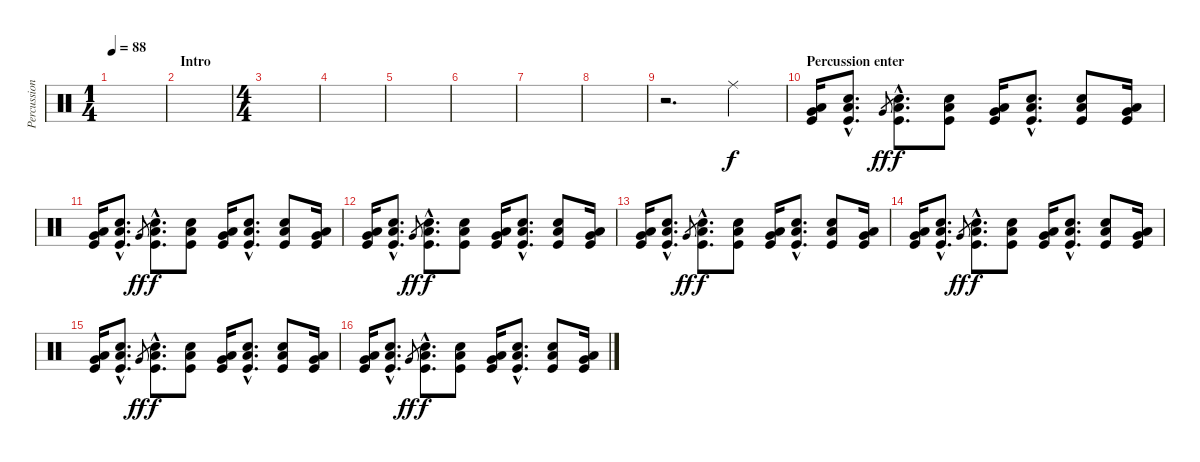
\track ("Percussion" "Percussion") {instrument percussion}
\staff {score}
\articulation defaults
\ts (1 4)
\tempo 88
\clef neutral
\ks c
|
\section ("" "Intro")
|
\ts (4 4)
|
|
|
|
|
|
r.2{d} "Ride (middle)".4 |
\section ("" "Percussion enter")
("Very Low Tom (hit)" "Low Tom (hit)" "Kick (hit)").16{dy f volume 11} ("Electric Snare (hit)"{hac} "Low Tom (hit)"{hac} "Kick (hit)"{hac}).8{d} "Very Low Tom (hit)".8{gr dy ff} ("Electric Snare (hit)"{hac} "Low Tom (hit)"{hac} "Kick (hit)"{hac}).8{d dy f} ("Electric Snare (hit)" "Low Tom (hit)" "Kick (hit)").8 ("Very Low Tom (hit)" "Low Tom (hit)" "Kick (hit)").16 ("Electric Snare (hit)"{hac} "Low Tom (hit)"{hac} "Kick (hit)"{hac}).8{d} ("Electric Snare (hit)" "Low Tom (hit)" "Kick (hit)").8 ("Very Low Tom (hit)" "Low Tom (hit)" "Kick (hit)").16 |
("Very Low Tom (hit)" "Low Tom (hit)" "Kick (hit)").16 ("Electric Snare (hit)"{hac} "Low Tom (hit)"{hac} "Kick (hit)"{hac}).8{d} "Very Low Tom (hit)".8{gr dy ff} ("Electric Snare (hit)"{hac} "Low Tom (hit)"{hac} "Kick (hit)"{hac}).8{d dy f} ("Electric Snare (hit)" "Low Tom (hit)" "Kick (hit)").8 ("Very Low Tom (hit)" "Low Tom (hit)" "Kick (hit)").16 ("Electric Snare (hit)"{hac} "Low Tom (hit)"{hac} "Kick (hit)"{hac}).8{d} ("Electric Snare (hit)" "Low Tom (hit)" "Kick (hit)").8 ("Very Low Tom (hit)" "Low Tom (hit)" "Kick (hit)").16 |
("Very Low Tom (hit)" "Low Tom (hit)" "Kick (hit)").16 ("Electric Snare (hit)"{hac} "Low Tom (hit)"{hac} "Kick (hit)"{hac}).8{d} "Very Low Tom (hit)".8{gr dy ff} ("Electric Snare (hit)"{hac} "Low Tom (hit)"{hac} "Kick (hit)"{hac}).8{d dy f} ("Electric Snare (hit)" "Low Tom (hit)" "Kick (hit)").8 ("Very Low Tom (hit)" "Low Tom (hit)" "Kick (hit)").16 ("Electric Snare (hit)"{hac} "Low Tom (hit)"{hac} "Kick (hit)"{hac}).8{d} ("Electric Snare (hit)" "Low Tom (hit)" "Kick (hit)").8 ("Very Low Tom (hit)" "Low Tom (hit)" "Kick (hit)").16 |
("Very Low Tom (hit)" "Low Tom (hit)" "Kick (hit)").16 ("Electric Snare (hit)"{hac} "Low Tom (hit)"{hac} "Kick (hit)"{hac}).8{d} "Very Low Tom (hit)".8{gr dy ff} ("Electric Snare (hit)"{hac} "Low Tom (hit)"{hac} "Kick (hit)"{hac}).8{d dy f} ("Electric Snare (hit)" "Low Tom (hit)" "Kick (hit)").8 ("Very Low Tom (hit)" "Low Tom (hit)" "Kick (hit)").16 ("Electric Snare (hit)"{hac} "Low Tom (hit)"{hac} "Kick (hit)"{hac}).8{d} ("Electric Snare (hit)" "Low Tom (hit)" "Kick (hit)").8 ("Very Low Tom (hit)" "Low Tom (hit)" "Kick (hit)").16 |
("Very Low Tom (hit)" "Low Tom (hit)" "Kick (hit)").16 ("Electric Snare (hit)"{hac} "Low Tom (hit)"{hac} "Kick (hit)"{hac}).8{d} "Very Low Tom (hit)".8{gr dy ff} ("Electric Snare (hit)"{hac} "Low Tom (hit)"{hac} "Kick (hit)"{hac}).8{d dy f} ("Electric Snare (hit)" "Low Tom (hit)" "Kick (hit)").8 ("Very Low Tom (hit)" "Low Tom (hit)" "Kick (hit)").16 ("Electric Snare (hit)"{hac} "Low Tom (hit)"{hac} "Kick (hit)"{hac}).8{d} ("Electric Snare (hit)" "Low Tom (hit)" "Kick (hit)").8 ("Very Low Tom (hit)" "Low Tom (hit)" "Kick (hit)").16 |
("Very Low Tom (hit)" "Low Tom (hit)" "Kick (hit)").16 ("Electric Snare (hit)"{hac} "Low Tom (hit)"{hac} "Kick (hit)"{hac}).8{d} "Very Low Tom (hit)".8{gr dy ff} ("Electric Snare (hit)"{hac} "Low Tom (hit)"{hac} "Kick (hit)"{hac}).8{d dy f} ("Electric Snare (hit)" "Low Tom (hit)" "Kick (hit)").8 ("Very Low Tom (hit)" "Low Tom (hit)" "Kick (hit)").16 ("Electric Snare (hit)"{hac} "Low Tom (hit)"{hac} "Kick (hit)"{hac}).8{d} ("Electric Snare (hit)" "Low Tom (hit)" "Kick (hit)").8 ("Very Low Tom (hit)" "Low Tom (hit)" "Kick (hit)").16 |
("Very Low Tom (hit)" "Low Tom (hit)" "Kick (hit)").16 ("Electric Snare (hit)"{hac} "Low Tom (hit)"{hac} "Kick (hit)"{hac}).8{d} "Very Low Tom (hit)".8{gr dy ff} ("Electric Snare (hit)"{hac} "Low Tom (hit)"{hac} "Kick (hit)"{hac}).8{d dy f} ("Electric Snare (hit)" "Low Tom (hit)" "Kick (hit)").8 ("Very Low Tom (hit)" "Low Tom (hit)" "Kick (hit)").16 ("Electric Snare (hit)"{hac} "Low Tom (hit)"{hac} "Kick (hit)"{hac}).8{d} ("Electric Snare (hit)" "Low Tom (hit)" "Kick (hit)").8 ("Very Low Tom (hit)" "Low Tom (hit)" "Kick (hit)").16
